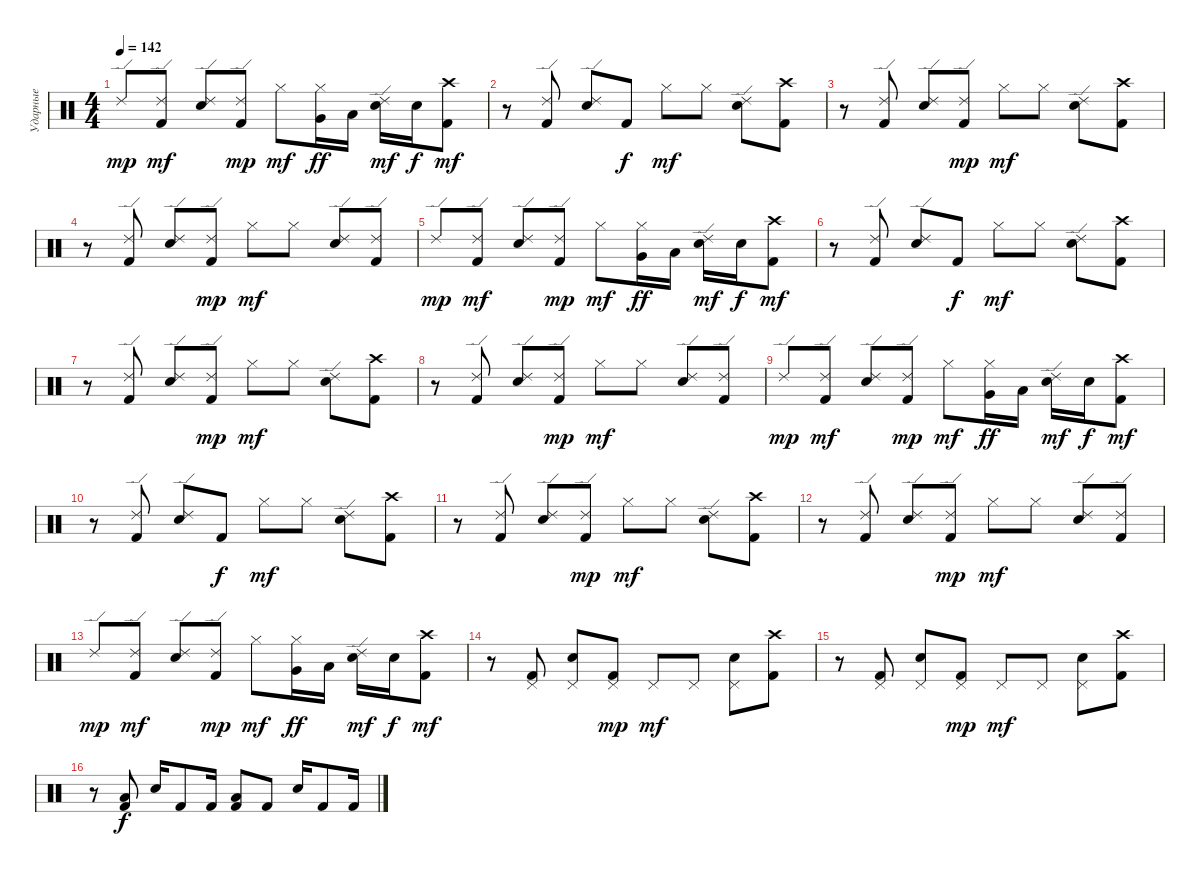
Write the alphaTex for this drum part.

\track ("Ударные" "Ударные") {instrument percussion}
\staff {score}
\articulation defaults
\ts (4 4)
\tempo 142
\clef neutral
\ks c "Ride (edge) 2".8{dy mp}
("Kick (hit) 2" "Ride (edge) 2").8{dy mf} ("Electric Snare (hit)" "Ride (edge) 2").8 ("Kick (hit) 2" "Ride (edge) 2").8{dy mp} "Hi-Hat (closed)".8{dy mf} ("Hi-Hat (closed)" "Very Low Tom (hit)").16{dy ff} "Low Floor Tom (hit)".16 ("Electric Snare (hit)" "Ride (edge) 2").16{dy mf} "Electric Snare (hit)".16{dy f} ("Kick (hit) 2" "Crash high (hit)").8{dy mf} |
r.8 ("Kick (hit) 2" "Ride (edge) 2").8 ("Electric Snare (hit)" "Ride (edge) 2").8 "Kick (hit) 2".8{dy f} "Hi-Hat (closed)".8{dy mf} "Hi-Hat (closed)".8 ("Electric Snare (hit)" "Ride (edge) 2").8 ("Kick (hit) 2" "Crash high (hit)").8 |
r.8 ("Kick (hit) 2" "Ride (edge) 2").8 ("Electric Snare (hit)" "Ride (edge) 2").8 ("Kick (hit) 2" "Ride (edge) 2").8{dy mp} "Hi-Hat (closed)".8{dy mf} "Hi-Hat (closed)".8 ("Electric Snare (hit)" "Ride (edge) 2").8 ("Kick (hit) 2" "Crash high (hit)").8 |
r.8 ("Kick (hit) 2" "Ride (edge) 2").8 ("Electric Snare (hit)" "Ride (edge) 2").8 ("Kick (hit) 2" "Ride (edge) 2").8{dy mp} "Hi-Hat (closed)".8{dy mf} "Hi-Hat (closed)".8 ("Electric Snare (hit)" "Ride (edge) 2").8 ("Kick (hit) 2" "Ride (edge) 2").8 |
"Ride (edge) 2".8{dy mp} ("Kick (hit) 2" "Ride (edge) 2").8{dy mf} ("Electric Snare (hit)" "Ride (edge) 2").8 ("Kick (hit) 2" "Ride (edge) 2").8{dy mp} "Hi-Hat (closed)".8{dy mf} ("Hi-Hat (closed)" "Very Low Tom (hit)").16{dy ff} "Low Floor Tom (hit)".16 ("Electric Snare (hit)" "Ride (edge) 2").16{dy mf} "Electric Snare (hit)".16{dy f} ("Kick (hit) 2" "Crash high (hit)").8{dy mf} |
r.8 ("Kick (hit) 2" "Ride (edge) 2").8 ("Electric Snare (hit)" "Ride (edge) 2").8 "Kick (hit) 2".8{dy f} "Hi-Hat (closed)".8{dy mf} "Hi-Hat (closed)".8 ("Electric Snare (hit)" "Ride (edge) 2").8 ("Kick (hit) 2" "Crash high (hit)").8 |
r.8 ("Kick (hit) 2" "Ride (edge) 2").8 ("Electric Snare (hit)" "Ride (edge) 2").8 ("Kick (hit) 2" "Ride (edge) 2").8{dy mp} "Hi-Hat (closed)".8{dy mf} "Hi-Hat (closed)".8 ("Electric Snare (hit)" "Ride (edge) 2").8 ("Kick (hit) 2" "Crash high (hit)").8 |
r.8 ("Kick (hit) 2" "Ride (edge) 2").8 ("Electric Snare (hit)" "Ride (edge) 2").8 ("Kick (hit) 2" "Ride (edge) 2").8{dy mp} "Hi-Hat (closed)".8{dy mf} "Hi-Hat (closed)".8 ("Electric Snare (hit)" "Ride (edge) 2").8 ("Kick (hit) 2" "Ride (edge) 2").8 |
"Ride (edge) 2".8{dy mp} ("Kick (hit) 2" "Ride (edge) 2").8{dy mf} ("Electric Snare (hit)" "Ride (edge) 2").8 ("Kick (hit) 2" "Ride (edge) 2").8{dy mp} "Hi-Hat (closed)".8{dy mf} ("Hi-Hat (closed)" "Very Low Tom (hit)").16{dy ff} "Low Floor Tom (hit)".16 ("Electric Snare (hit)" "Ride (edge) 2").16{dy mf} "Electric Snare (hit)".16{dy f} ("Kick (hit) 2" "Crash high (hit)").8{dy mf} |
r.8 ("Kick (hit) 2" "Ride (edge) 2").8 ("Electric Snare (hit)" "Ride (edge) 2").8 "Kick (hit) 2".8{dy f} "Hi-Hat (closed)".8{dy mf} "Hi-Hat (closed)".8 ("Electric Snare (hit)" "Ride (edge) 2").8 ("Kick (hit) 2" "Crash high (hit)").8 |
r.8 ("Kick (hit) 2" "Ride (edge) 2").8 ("Electric Snare (hit)" "Ride (edge) 2").8 ("Kick (hit) 2" "Ride (edge) 2").8{dy mp} "Hi-Hat (closed)".8{dy mf} "Hi-Hat (closed)".8 ("Electric Snare (hit)" "Ride (edge) 2").8 ("Kick (hit) 2" "Crash high (hit)").8 |
r.8 ("Kick (hit) 2" "Ride (edge) 2").8 ("Electric Snare (hit)" "Ride (edge) 2").8 ("Kick (hit) 2" "Ride (edge) 2").8{dy mp} "Hi-Hat (closed)".8{dy mf} "Hi-Hat (closed)".8 ("Electric Snare (hit)" "Ride (edge) 2").8 ("Kick (hit) 2" "Ride (edge) 2").8 |
"Ride (edge) 2".8{dy mp} ("Kick (hit) 2" "Ride (edge) 2").8{dy mf} ("Electric Snare (hit)" "Ride (edge) 2").8 ("Kick (hit) 2" "Ride (edge) 2").8{dy mp} "Hi-Hat (closed)".8{dy mf} ("Hi-Hat (closed)" "Very Low Tom (hit)").16{dy ff} "Low Floor Tom (hit)".16 ("Electric Snare (hit)" "Ride (edge) 2").16{dy mf} "Electric Snare (hit)".16{dy f} ("Kick (hit) 2" "Crash high (hit)").8{dy mf} |
r.8 ("Kick (hit) 2" "Pedal Hi-Hat (hit)").8 ("Electric Snare (hit)" "Pedal Hi-Hat (hit)").8 ("Kick (hit) 2" "Pedal Hi-Hat (hit)").8{dy mp} "Pedal Hi-Hat (hit)".8{dy mf} "Pedal Hi-Hat (hit)".8 ("Electric Snare (hit)" "Pedal Hi-Hat (hit)").8 ("Kick (hit) 2" "Crash high (hit)").8 |
r.8 ("Kick (hit) 2" "Pedal Hi-Hat (hit)").8 ("Electric Snare (hit)" "Pedal Hi-Hat (hit)").8 ("Kick (hit) 2" "Pedal Hi-Hat (hit)").8{dy mp} "Pedal Hi-Hat (hit)".8{dy mf} "Pedal Hi-Hat (hit)".8 ("Electric Snare (hit)" "Pedal Hi-Hat (hit)").8 ("Kick (hit) 2" "Crash high (hit)").8 |
r.8 ("Kick (hit) 2" "Low Floor Tom (hit)").8{dy f} "Electric Snare (hit)".16 "Kick (hit) 2".8 "Kick (hit) 2".16 ("Kick (hit) 2" "Low Floor Tom (hit)").8 "Kick (hit) 2".8 "Electric Snare (hit)".16 "Kick (hit) 2".8 "Kick (hit) 2".16
